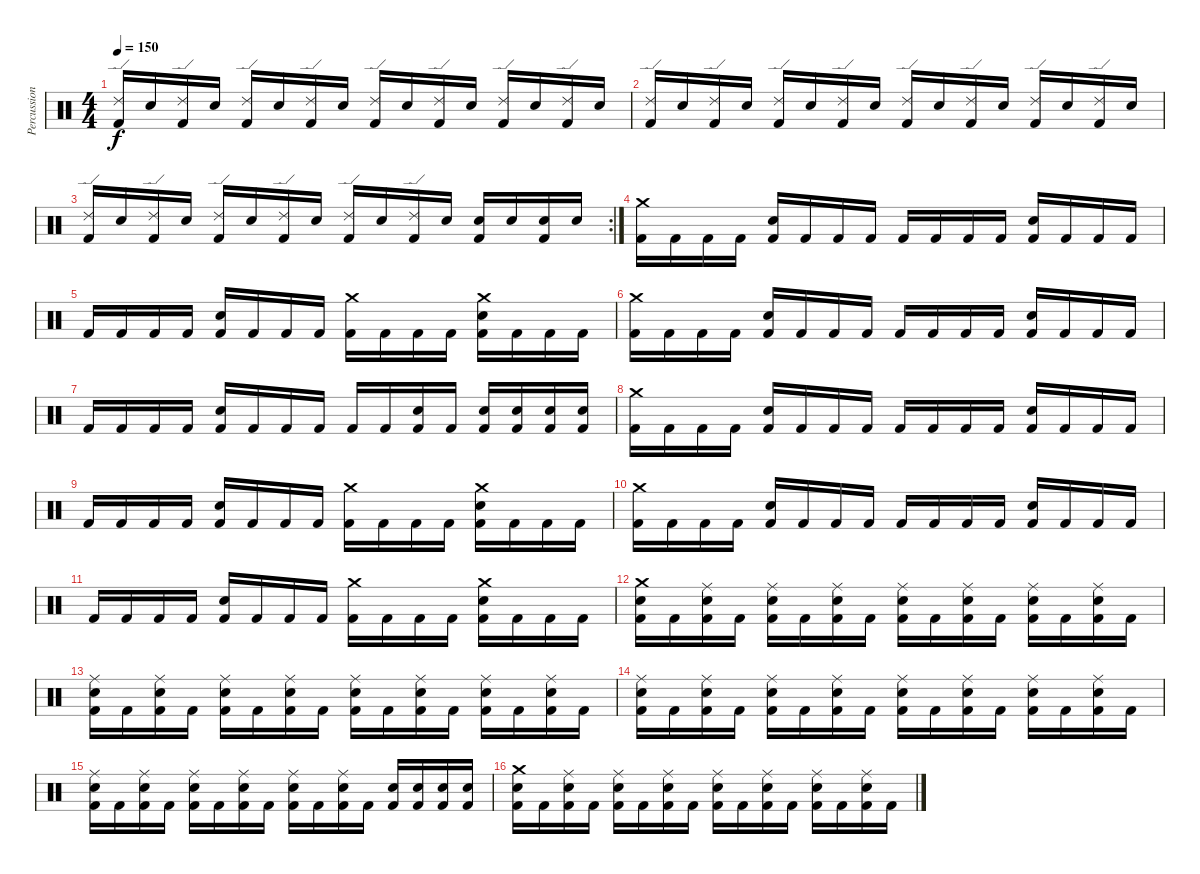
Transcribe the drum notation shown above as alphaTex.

\track ("Percussions" "Percussion") {instrument percussion}
\staff {score}
\articulation defaults
\ts (4 4)
\tempo 150
\clef neutral
\ks c
("Ride (edge) 2" "Kick (hit) 2").16{dy f} "Snare (hit) 2".16 ("Ride (edge) 2" "Kick (hit) 2").16 "Snare (hit) 2".16 ("Ride (edge) 2" "Kick (hit) 2").16 "Snare (hit) 2".16 ("Ride (edge) 2" "Kick (hit) 2").16 "Snare (hit) 2".16 ("Ride (edge) 2" "Kick (hit) 2").16 "Snare (hit) 2".16 ("Ride (edge) 2" "Kick (hit) 2").16 "Snare (hit) 2".16 ("Ride (edge) 2" "Kick (hit) 2").16 "Snare (hit) 2".16 ("Ride (edge) 2" "Kick (hit) 2").16 "Snare (hit) 2".16 |
("Ride (edge) 2" "Kick (hit) 2").16 "Snare (hit) 2".16 ("Ride (edge) 2" "Kick (hit) 2").16 "Snare (hit) 2".16 ("Ride (edge) 2" "Kick (hit) 2").16 "Snare (hit) 2".16 ("Ride (edge) 2" "Kick (hit) 2").16 "Snare (hit) 2".16 ("Ride (edge) 2" "Kick (hit) 2").16 "Snare (hit) 2".16 ("Ride (edge) 2" "Kick (hit) 2").16 "Snare (hit) 2".16 ("Ride (edge) 2" "Kick (hit) 2").16 "Snare (hit) 2".16 ("Ride (edge) 2" "Kick (hit) 2").16 "Snare (hit) 2".16 |
\rc 2
("Ride (edge) 2" "Kick (hit) 2").16 "Snare (hit) 2".16 ("Ride (edge) 2" "Kick (hit) 2").16 "Snare (hit) 2".16 ("Ride (edge) 2" "Kick (hit) 2").16 "Snare (hit) 2".16 ("Ride (edge) 2" "Kick (hit) 2").16 "Snare (hit) 2".16 ("Ride (edge) 2" "Kick (hit) 2").16 "Snare (hit) 2".16 ("Ride (edge) 2" "Kick (hit) 2").16 "Snare (hit) 2".16 ("Snare (hit) 2" "Kick (hit) 2").16 "Snare (hit) 2".16 ("Snare (hit) 2" "Kick (hit) 2").16 "Snare (hit) 2".16 |
("Crash medium (hit)" "Kick (hit) 2").16 "Kick (hit) 2".16 "Kick (hit) 2".16 "Kick (hit) 2".16 ("Snare (hit) 2" "Kick (hit) 2").16 "Kick (hit) 2".16 "Kick (hit) 2".16 "Kick (hit) 2".16 "Kick (hit) 2".16 "Kick (hit) 2".16 "Kick (hit) 2".16 "Kick (hit) 2".16 ("Snare (hit) 2" "Kick (hit) 2").16 "Kick (hit) 2".16 "Kick (hit) 2".16 "Kick (hit) 2".16 |
"Kick (hit) 2".16 "Kick (hit) 2".16 "Kick (hit) 2".16 "Kick (hit) 2".16 ("Snare (hit) 2" "Kick (hit) 2").16 "Kick (hit) 2".16 "Kick (hit) 2".16 "Kick (hit) 2".16 ("Crash medium (hit)" "Kick (hit) 2").16 "Kick (hit) 2".16 "Kick (hit) 2".16 "Kick (hit) 2".16 ("Crash medium (hit)" "Snare (hit) 2" "Kick (hit) 2").16 "Kick (hit) 2".16 "Kick (hit) 2".16 "Kick (hit) 2".16 |
("Crash medium (hit)" "Kick (hit) 2").16 "Kick (hit) 2".16 "Kick (hit) 2".16 "Kick (hit) 2".16 ("Snare (hit) 2" "Kick (hit) 2").16 "Kick (hit) 2".16 "Kick (hit) 2".16 "Kick (hit) 2".16 "Kick (hit) 2".16 "Kick (hit) 2".16 "Kick (hit) 2".16 "Kick (hit) 2".16 ("Snare (hit) 2" "Kick (hit) 2").16 "Kick (hit) 2".16 "Kick (hit) 2".16 "Kick (hit) 2".16 |
"Kick (hit) 2".16 "Kick (hit) 2".16 "Kick (hit) 2".16 "Kick (hit) 2".16 ("Snare (hit) 2" "Kick (hit) 2").16 "Kick (hit) 2".16 "Kick (hit) 2".16 "Kick (hit) 2".16 "Kick (hit) 2".16 "Kick (hit) 2".16 ("Snare (hit) 2" "Kick (hit) 2").16 "Kick (hit) 2".16 ("Snare (hit) 2" "Kick (hit) 2").16 ("Snare (hit) 2" "Kick (hit) 2").16 ("Snare (hit) 2" "Kick (hit) 2").16 ("Snare (hit) 2" "Kick (hit) 2").16 |
("Crash medium (hit)" "Kick (hit) 2").16 "Kick (hit) 2".16 "Kick (hit) 2".16 "Kick (hit) 2".16 ("Snare (hit) 2" "Kick (hit) 2").16 "Kick (hit) 2".16 "Kick (hit) 2".16 "Kick (hit) 2".16 "Kick (hit) 2".16 "Kick (hit) 2".16 "Kick (hit) 2".16 "Kick (hit) 2".16 ("Snare (hit) 2" "Kick (hit) 2").16 "Kick (hit) 2".16 "Kick (hit) 2".16 "Kick (hit) 2".16 |
"Kick (hit) 2".16 "Kick (hit) 2".16 "Kick (hit) 2".16 "Kick (hit) 2".16 ("Snare (hit) 2" "Kick (hit) 2").16 "Kick (hit) 2".16 "Kick (hit) 2".16 "Kick (hit) 2".16 ("Crash medium (hit)" "Kick (hit) 2").16 "Kick (hit) 2".16 "Kick (hit) 2".16 "Kick (hit) 2".16 ("Crash medium (hit)" "Snare (hit) 2" "Kick (hit) 2").16 "Kick (hit) 2".16 "Kick (hit) 2".16 "Kick (hit) 2".16 |
("Crash medium (hit)" "Kick (hit) 2").16 "Kick (hit) 2".16 "Kick (hit) 2".16 "Kick (hit) 2".16 ("Snare (hit) 2" "Kick (hit) 2").16 "Kick (hit) 2".16 "Kick (hit) 2".16 "Kick (hit) 2".16 "Kick (hit) 2".16 "Kick (hit) 2".16 "Kick (hit) 2".16 "Kick (hit) 2".16 ("Snare (hit) 2" "Kick (hit) 2").16 "Kick (hit) 2".16 "Kick (hit) 2".16 "Kick (hit) 2".16 |
"Kick (hit) 2".16 "Kick (hit) 2".16 "Kick (hit) 2".16 "Kick (hit) 2".16 ("Snare (hit) 2" "Kick (hit) 2").16 "Kick (hit) 2".16 "Kick (hit) 2".16 "Kick (hit) 2".16 ("Crash medium (hit)" "Kick (hit) 2").16 "Kick (hit) 2".16 "Kick (hit) 2".16 "Kick (hit) 2".16 ("Crash medium (hit)" "Snare (hit) 2" "Kick (hit) 2").16 "Kick (hit) 2".16 "Kick (hit) 2".16 "Kick (hit) 2".16 |
("Crash medium (hit)" "Snare (hit) 2" "Kick (hit) 2").16 "Kick (hit) 2".16 ("Ride (middle)" "Snare (hit) 2" "Kick (hit) 2").16 "Kick (hit) 2".16 ("Ride (middle)" "Snare (hit) 2" "Kick (hit) 2").16 "Kick (hit) 2".16 ("Ride (middle)" "Snare (hit) 2" "Kick (hit) 2").16 "Kick (hit) 2".16 ("Ride (middle)" "Snare (hit) 2" "Kick (hit) 2").16 "Kick (hit) 2".16 ("Ride (middle)" "Snare (hit) 2" "Kick (hit) 2").16 "Kick (hit) 2".16 ("Ride (middle)" "Snare (hit) 2" "Kick (hit) 2").16 "Kick (hit) 2".16 ("Ride (middle)" "Snare (hit) 2" "Kick (hit) 2").16 "Kick (hit) 2".16 |
("Ride (middle)" "Snare (hit) 2" "Kick (hit) 2").16 "Kick (hit) 2".16 ("Ride (middle)" "Snare (hit) 2" "Kick (hit) 2").16 "Kick (hit) 2".16 ("Ride (middle)" "Snare (hit) 2" "Kick (hit) 2").16 "Kick (hit) 2".16 ("Ride (middle)" "Snare (hit) 2" "Kick (hit) 2").16 "Kick (hit) 2".16 ("Ride (middle)" "Snare (hit) 2" "Kick (hit) 2").16 "Kick (hit) 2".16 ("Ride (middle)" "Snare (hit) 2" "Kick (hit) 2").16 "Kick (hit) 2".16 ("Ride (middle)" "Snare (hit) 2" "Kick (hit) 2").16 "Kick (hit) 2".16 ("Ride (middle)" "Snare (hit) 2" "Kick (hit) 2").16 "Kick (hit) 2".16 |
("Ride (middle)" "Snare (hit) 2" "Kick (hit) 2").16 "Kick (hit) 2".16 ("Ride (middle)" "Snare (hit) 2" "Kick (hit) 2").16 "Kick (hit) 2".16 ("Ride (middle)" "Snare (hit) 2" "Kick (hit) 2").16 "Kick (hit) 2".16 ("Ride (middle)" "Snare (hit) 2" "Kick (hit) 2").16 "Kick (hit) 2".16 ("Ride (middle)" "Snare (hit) 2" "Kick (hit) 2").16 "Kick (hit) 2".16 ("Ride (middle)" "Snare (hit) 2" "Kick (hit) 2").16 "Kick (hit) 2".16 ("Ride (middle)" "Snare (hit) 2" "Kick (hit) 2").16 "Kick (hit) 2".16 ("Ride (middle)" "Snare (hit) 2" "Kick (hit) 2").16 "Kick (hit) 2".16 |
("Ride (middle)" "Snare (hit) 2" "Kick (hit) 2").16 "Kick (hit) 2".16 ("Ride (middle)" "Snare (hit) 2" "Kick (hit) 2").16 "Kick (hit) 2".16 ("Ride (middle)" "Snare (hit) 2" "Kick (hit) 2").16 "Kick (hit) 2".16 ("Ride (middle)" "Snare (hit) 2" "Kick (hit) 2").16 "Kick (hit) 2".16 ("Ride (middle)" "Snare (hit) 2" "Kick (hit) 2").16 "Kick (hit) 2".16 ("Ride (middle)" "Snare (hit) 2" "Kick (hit) 2").16 "Kick (hit) 2".16 ("Snare (hit) 2" "Kick (hit) 2").16 ("Snare (hit) 2" "Kick (hit) 2").16 ("Snare (hit) 2" "Kick (hit) 2").16 ("Snare (hit) 2" "Kick (hit) 2").16 |
("Crash medium (hit)" "Snare (hit) 2" "Kick (hit) 2").16 "Kick (hit) 2".16 ("Ride (middle)" "Snare (hit) 2" "Kick (hit) 2").16 "Kick (hit) 2".16 ("Ride (middle)" "Snare (hit) 2" "Kick (hit) 2").16 "Kick (hit) 2".16 ("Ride (middle)" "Snare (hit) 2" "Kick (hit) 2").16 "Kick (hit) 2".16 ("Ride (middle)" "Snare (hit) 2" "Kick (hit) 2").16 "Kick (hit) 2".16 ("Ride (middle)" "Snare (hit) 2" "Kick (hit) 2").16 "Kick (hit) 2".16 ("Ride (middle)" "Snare (hit) 2" "Kick (hit) 2").16 "Kick (hit) 2".16 ("Ride (middle)" "Snare (hit) 2" "Kick (hit) 2").16 "Kick (hit) 2".16
